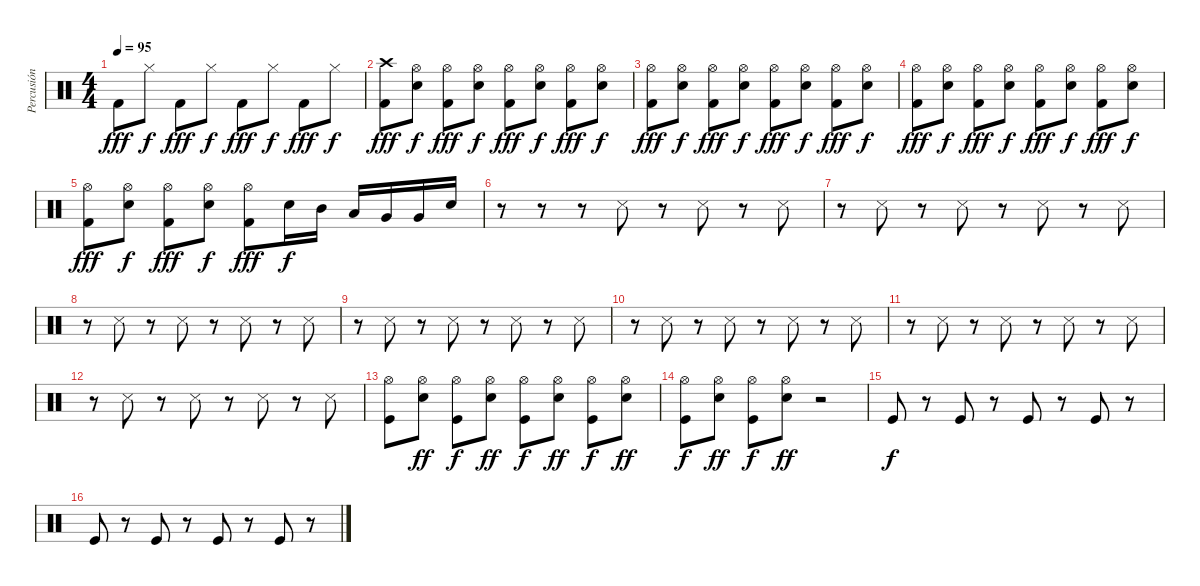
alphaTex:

\track ("Percusión" "Percusión") {instrument percussion}
\staff {score}
\articulation defaults
\ts (4 4)
\tempo 95
\clef neutral
\ks c "Kick (hit) 2".8{dy fff} "Hi-Hat (closed)".8{dy f} "Kick (hit) 2".8{dy fff} "Hi-Hat (closed)".8{dy f} "Kick (hit) 2".8{dy fff} "Hi-Hat (closed)".8{dy f} "Kick (hit) 2".8{dy fff} "Hi-Hat (closed)".8{dy f}
|
("Kick (hit) 2" "Crash high (hit)").8{dy fff} ("Electric Snare (hit)" "Hi-Hat (open)").8{dy f} ("Kick (hit) 2" "Hi-Hat (open)").8{dy fff} ("Electric Snare (hit)" "Hi-Hat (open)").8{dy f} ("Kick (hit) 2" "Hi-Hat (open)").8{dy fff} ("Electric Snare (hit)" "Hi-Hat (open)").8{dy f} ("Kick (hit) 2" "Hi-Hat (open)").8{dy fff} ("Electric Snare (hit)" "Hi-Hat (open)").8{dy f} |
("Kick (hit) 2" "Hi-Hat (open)").8{dy fff} ("Electric Snare (hit)" "Hi-Hat (open)").8{dy f} ("Kick (hit) 2" "Hi-Hat (open)").8{dy fff} ("Electric Snare (hit)" "Hi-Hat (open)").8{dy f} ("Kick (hit) 2" "Hi-Hat (open)").8{dy fff} ("Electric Snare (hit)" "Hi-Hat (open)").8{dy f} ("Kick (hit) 2" "Hi-Hat (open)").8{dy fff} ("Electric Snare (hit)" "Hi-Hat (open)").8{dy f} |
("Kick (hit) 2" "Hi-Hat (open)").8{dy fff} ("Electric Snare (hit)" "Hi-Hat (open)").8{dy f} ("Kick (hit) 2" "Hi-Hat (open)").8{dy fff} ("Electric Snare (hit)" "Hi-Hat (open)").8{dy f} ("Kick (hit) 2" "Hi-Hat (open)").8{dy fff} ("Electric Snare (hit)" "Hi-Hat (open)").8{dy f} ("Kick (hit) 2" "Hi-Hat (open)").8{dy fff} ("Electric Snare (hit)" "Hi-Hat (open)").8{dy f} |
("Kick (hit) 2" "Hi-Hat (open)").8{dy fff} ("Electric Snare (hit)" "Hi-Hat (open)").8{dy f} ("Kick (hit) 2" "Hi-Hat (open)").8{dy fff} ("Electric Snare (hit)" "Hi-Hat (open)").8{dy f} ("Kick (hit) 2" "Hi-Hat (open)").8{dy fff} "Electric Snare (hit)".16{dy f} "Mid Tom (hit)".16 "Low Tom (hit)".16 "Very Low Tom (hit)".16 "Very Low Tom (hit)".16 "Electric Snare (hit)".16 |
r.8 r.8 r.8 "Snare (side stick) 3".8 r.8 "Snare (side stick) 3".8 r.8 "Snare (side stick) 3".8 |
r.8 "Snare (side stick) 3".8 r.8 "Snare (side stick) 3".8 r.8 "Snare (side stick) 3".8 r.8 "Snare (side stick) 3".8 |
r.8 "Snare (side stick) 3".8 r.8 "Snare (side stick) 3".8 r.8 "Snare (side stick) 3".8 r.8 "Snare (side stick) 3".8 |
r.8 "Snare (side stick) 3".8 r.8 "Snare (side stick) 3".8 r.8 "Snare (side stick) 3".8 r.8 "Snare (side stick) 3".8 |
r.8 "Snare (side stick) 3".8 r.8 "Snare (side stick) 3".8 r.8 "Snare (side stick) 3".8 r.8 "Snare (side stick) 3".8 |
r.8 "Snare (side stick) 3".8 r.8 "Snare (side stick) 3".8 r.8 "Snare (side stick) 3".8 r.8 "Snare (side stick) 3".8 |
r.8 "Snare (side stick) 3".8 r.8 "Snare (side stick) 3".8 r.8 "Snare (side stick) 3".8 r.8 "Snare (side stick) 3".8 |
("Kick (hit)" "Hi-Hat (open)").8 ("Electric Snare (hit)" "Hi-Hat (open)").8{dy ff} ("Kick (hit)" "Hi-Hat (open)").8{dy f} ("Electric Snare (hit)" "Hi-Hat (open)").8{dy ff} ("Kick (hit)" "Hi-Hat (open)").8{dy f} ("Electric Snare (hit)" "Hi-Hat (open)").8{dy ff} ("Kick (hit)" "Hi-Hat (open)").8{dy f} ("Electric Snare (hit)" "Hi-Hat (open)").8{dy ff} |
("Kick (hit)" "Hi-Hat (open)").8{dy f} ("Electric Snare (hit)" "Hi-Hat (open)").8{dy ff} ("Kick (hit)" "Hi-Hat (open)").8{dy f} ("Electric Snare (hit)" "Hi-Hat (open)").8{dy ff} r.2 |
"Kick (hit)".8{dy f} r.8 "Kick (hit)".8 r.8 "Kick (hit)".8 r.8 "Kick (hit)".8 r.8 |
"Kick (hit)".8 r.8 "Kick (hit)".8 r.8 "Kick (hit)".8 r.8 "Kick (hit)".8 r.8
